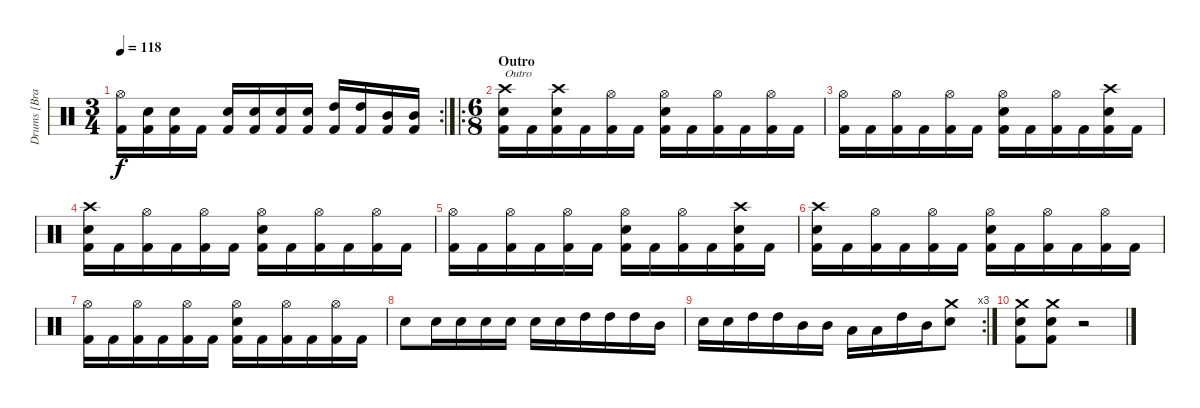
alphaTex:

\track ("Drums [Brann Dailor]" "Drums [Bra") {instrument percussion}
\staff {score}
\articulation defaults
\rc 2
\ts (3 4)
\tempo 118
\clef neutral
\ks c
("Hi-Hat (open)" "Kick (hit) 2").16{dy f} ("Electric Snare (hit)" "Kick (hit) 2").16 ("Electric Snare (hit)" "Kick (hit) 2").16 "Kick (hit) 2".16 ("Electric Snare (hit)" "Kick (hit) 2").16 ("Electric Snare (hit)" "Kick (hit) 2").16 ("Electric Snare (hit)" "Kick (hit) 2").16 ("Electric Snare (hit)" "Kick (hit) 2").16 ("High Tom (hit)" "Kick (hit) 2").16 ("High Tom (hit)" "Kick (hit) 2").16 ("Mid Tom (hit)" "Kick (hit) 2").16 ("Mid Tom (hit)" "Kick (hit) 2").16 |
\ro
\ts (6 8)
\section ("" "Outro")
("Crash high (hit)" "Electric Snare (hit)" "Kick (hit) 2").16{txt "Outro"} "Kick (hit) 2".16 ("Crash high (hit)" "Electric Snare (hit)" "Kick (hit) 2").16 "Kick (hit) 2".16 ("Hi-Hat (open)" "Kick (hit) 2").16 "Kick (hit) 2".16 ("Hi-Hat (open)" "Electric Snare (hit)" "Kick (hit) 2").16 "Kick (hit) 2".16 ("Hi-Hat (open)" "Kick (hit) 2").16 "Kick (hit) 2".16 ("Hi-Hat (open)" "Kick (hit) 2").16 "Kick (hit) 2".16 |
("Hi-Hat (open)" "Kick (hit) 2").16 "Kick (hit) 2".16 ("Hi-Hat (open)" "Kick (hit) 2").16 "Kick (hit) 2".16 ("Hi-Hat (open)" "Kick (hit) 2").16 "Kick (hit) 2".16 ("Hi-Hat (open)" "Electric Snare (hit)" "Kick (hit) 2").16 "Kick (hit) 2".16 ("Hi-Hat (open)" "Kick (hit) 2").16 "Kick (hit) 2".16 ("Crash high (hit)" "Electric Snare (hit)" "Kick (hit) 2").16 "Kick (hit) 2".16 |
("Crash high (hit)" "Electric Snare (hit)" "Kick (hit) 2").16 "Kick (hit) 2".16 ("Hi-Hat (open)" "Kick (hit) 2").16 "Kick (hit) 2".16 ("Hi-Hat (open)" "Kick (hit) 2").16 "Kick (hit) 2".16 ("Hi-Hat (open)" "Electric Snare (hit)" "Kick (hit) 2").16 "Kick (hit) 2".16 ("Hi-Hat (open)" "Kick (hit) 2").16 "Kick (hit) 2".16 ("Hi-Hat (open)" "Kick (hit) 2").16 "Kick (hit) 2".16 |
("Hi-Hat (open)" "Kick (hit) 2").16 "Kick (hit) 2".16 ("Hi-Hat (open)" "Kick (hit) 2").16 "Kick (hit) 2".16 ("Hi-Hat (open)" "Kick (hit) 2").16 "Kick (hit) 2".16 ("Hi-Hat (open)" "Electric Snare (hit)" "Kick (hit) 2").16 "Kick (hit) 2".16 ("Hi-Hat (open)" "Kick (hit) 2").16 "Kick (hit) 2".16 ("Crash high (hit)" "Electric Snare (hit)" "Kick (hit) 2").16 "Kick (hit) 2".16 |
("Crash high (hit)" "Electric Snare (hit)" "Kick (hit) 2").16 "Kick (hit) 2".16 ("Hi-Hat (open)" "Kick (hit) 2").16 "Kick (hit) 2".16 ("Hi-Hat (open)" "Kick (hit) 2").16 "Kick (hit) 2".16 ("Hi-Hat (open)" "Electric Snare (hit)" "Kick (hit) 2").16 "Kick (hit) 2".16 ("Hi-Hat (open)" "Kick (hit) 2").16 "Kick (hit) 2".16 ("Hi-Hat (open)" "Kick (hit) 2").16 "Kick (hit) 2".16 |
("Hi-Hat (open)" "Kick (hit) 2").16 "Kick (hit) 2".16 ("Hi-Hat (open)" "Kick (hit) 2").16 "Kick (hit) 2".16 ("Hi-Hat (open)" "Kick (hit) 2").16 "Kick (hit) 2".16 ("Hi-Hat (open)" "Electric Snare (hit)" "Kick (hit) 2").16 "Kick (hit) 2".16 ("Hi-Hat (open)" "Kick (hit) 2").16 "Kick (hit) 2".16 ("Hi-Hat (open)" "Kick (hit) 2").16 "Kick (hit) 2".16 |
"Electric Snare (hit)".8 "Electric Snare (hit)".16 "Electric Snare (hit)".16 "Electric Snare (hit)".16 "Electric Snare (hit)".16 "Electric Snare (hit)".16 "Electric Snare (hit)".16 "High Tom (hit)".16 "High Tom (hit)".16 "High Tom (hit)".16 "Mid Tom (hit)".16 |
\rc 3 "Electric Snare (hit)".16 "Electric Snare (hit)".16 "High Tom (hit)".16 "High Tom (hit)".16 "Mid Tom (hit)".16 "Mid Tom (hit)".16 "Low Tom (hit)".16 "Low Tom (hit)".16 "High Tom (hit)".16 "Mid Tom (hit)".16
("Crash medium (hit)" "Electric Snare (hit)").8 |
("Crash medium (hit)" "Electric Snare (hit)" "Kick (hit) 2").8 ("Crash medium (hit)" "Electric Snare (hit)" "Kick (hit) 2").8 r.2
